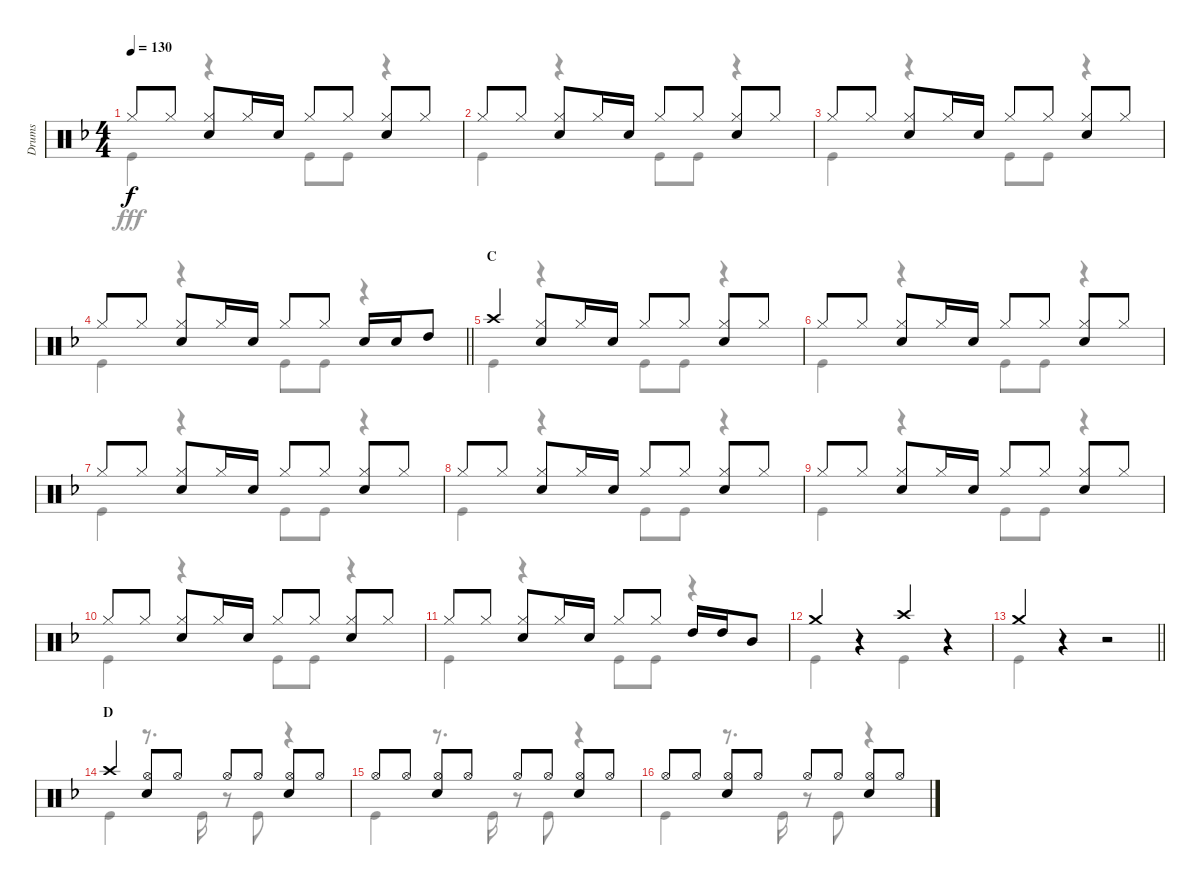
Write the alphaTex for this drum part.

\track ("Drums" "Drums") {instrument percussion}
\staff {score}
\articulation defaults
\voice
\ts (4 4)
\tempo 130
\clef neutral
\ks f "Hi-Hat (closed)".8{dy f} "Hi-Hat (closed)".8
("Hi-Hat (closed)" "Snare (hit) 2").8 "Hi-Hat (closed)".16 "Snare (hit) 2".16 "Hi-Hat (closed)".8 "Hi-Hat (closed)".8 ("Hi-Hat (closed)" "Snare (hit) 2").8 "Hi-Hat (closed)".8 |
"Hi-Hat (closed)".8 "Hi-Hat (closed)".8 ("Hi-Hat (closed)" "Snare (hit) 2").8 "Hi-Hat (closed)".16 "Snare (hit) 2".16 "Hi-Hat (closed)".8 "Hi-Hat (closed)".8 ("Hi-Hat (closed)" "Snare (hit) 2").8 "Hi-Hat (closed)".8 |
"Hi-Hat (closed)".8 "Hi-Hat (closed)".8 ("Hi-Hat (closed)" "Snare (hit) 2").8 "Hi-Hat (closed)".16 "Snare (hit) 2".16 "Hi-Hat (closed)".8 "Hi-Hat (closed)".8 ("Hi-Hat (closed)" "Snare (hit) 2").8 "Hi-Hat (closed)".8 |
\barLineRight lightlight "Hi-Hat (closed)".8 "Hi-Hat (closed)".8
("Hi-Hat (closed)" "Snare (hit) 2").8 "Hi-Hat (closed)".16 "Snare (hit) 2".16 "Hi-Hat (closed)".8 "Hi-Hat (closed)".8 "Snare (hit) 2".16 "Snare (hit) 2".16 "High Tom (hit)".8 |
\section ("" "C")
"Crash high (hit)".4 ("Hi-Hat (closed)" "Snare (hit) 2").8 "Hi-Hat (closed)".16 "Snare (hit) 2".16 "Hi-Hat (closed)".8 "Hi-Hat (closed)".8 ("Hi-Hat (closed)" "Snare (hit) 2").8 "Hi-Hat (closed)".8 |
"Hi-Hat (closed)".8 "Hi-Hat (closed)".8 ("Hi-Hat (closed)" "Snare (hit) 2").8 "Hi-Hat (closed)".16 "Snare (hit) 2".16 "Hi-Hat (closed)".8 "Hi-Hat (closed)".8 ("Hi-Hat (closed)" "Snare (hit) 2").8 "Hi-Hat (closed)".8 |
"Hi-Hat (closed)".8 "Hi-Hat (closed)".8 ("Hi-Hat (closed)" "Snare (hit) 2").8 "Hi-Hat (closed)".16 "Snare (hit) 2".16 "Hi-Hat (closed)".8 "Hi-Hat (closed)".8 ("Hi-Hat (closed)" "Snare (hit) 2").8 "Hi-Hat (closed)".8 |
"Hi-Hat (closed)".8 "Hi-Hat (closed)".8 ("Hi-Hat (closed)" "Snare (hit) 2").8 "Hi-Hat (closed)".16 "Snare (hit) 2".16 "Hi-Hat (closed)".8 "Hi-Hat (closed)".8 ("Hi-Hat (closed)" "Snare (hit) 2").8 "Hi-Hat (closed)".8 |
"Hi-Hat (closed)".8 "Hi-Hat (closed)".8 ("Hi-Hat (closed)" "Snare (hit) 2").8 "Hi-Hat (closed)".16 "Snare (hit) 2".16 "Hi-Hat (closed)".8 "Hi-Hat (closed)".8 ("Hi-Hat (closed)" "Snare (hit) 2").8 "Hi-Hat (closed)".8 |
"Hi-Hat (closed)".8 "Hi-Hat (closed)".8 ("Hi-Hat (closed)" "Snare (hit) 2").8 "Hi-Hat (closed)".16 "Snare (hit) 2".16 "Hi-Hat (closed)".8 "Hi-Hat (closed)".8 ("Hi-Hat (closed)" "Snare (hit) 2").8 "Hi-Hat (closed)".8 |
"Hi-Hat (closed)".8 "Hi-Hat (closed)".8 ("Hi-Hat (closed)" "Snare (hit) 2").8 "Hi-Hat (closed)".16 "Snare (hit) 2".16 "Hi-Hat (closed)".8 "Hi-Hat (closed)".8 "High Tom (hit)".16 "High Tom (hit)".16 "Mid Tom (hit)".8 |
"Crash medium (hit)".4 r.4 "Crash high (hit)".4 r.4 |
\barLineRight lightlight "Crash medium (hit)".4
r.4 r.2 |
\section ("" "D")
"Crash high (hit)".4 ("Hi-Hat (open)" "Snare (hit) 2").8 "Hi-Hat (open)".8 "Hi-Hat (open)".8 "Hi-Hat (open)".8 ("Hi-Hat (open)" "Snare (hit) 2").8 "Hi-Hat (open)".8 |
"Hi-Hat (open)".8 "Hi-Hat (open)".8 ("Hi-Hat (open)" "Snare (hit) 2").8 "Hi-Hat (open)".8 "Hi-Hat (open)".8 "Hi-Hat (open)".8 ("Hi-Hat (open)" "Snare (hit) 2").8 "Hi-Hat (open)".8 |
"Hi-Hat (open)".8 "Hi-Hat (open)".8 ("Hi-Hat (open)" "Snare (hit) 2").8 "Hi-Hat (open)".8 "Hi-Hat (open)".8 "Hi-Hat (open)".8 ("Hi-Hat (open)" "Snare (hit) 2").8 "Hi-Hat (open)".8
\voice
\clef neutral
\ottava regular
\simile none
\ks f "Kick (hit)".4{dy fff}
r.4 "Kick (hit)".8 "Kick (hit)".8 r.4 |
"Kick (hit)".4 r.4 "Kick (hit)".8 "Kick (hit)".8 r.4 |
"Kick (hit)".4 r.4 "Kick (hit)".8 "Kick (hit)".8 r.4 |
\barLineRight lightlight "Kick (hit)".4
r.4 "Kick (hit)".8 "Kick (hit)".8 r.4 |
"Kick (hit)".4 r.4 "Kick (hit)".8 "Kick (hit)".8 r.4 |
"Kick (hit)".4 r.4 "Kick (hit)".8 "Kick (hit)".8 r.4 |
"Kick (hit)".4 r.4 "Kick (hit)".8 "Kick (hit)".8 r.4 |
"Kick (hit)".4 r.4 "Kick (hit)".8 "Kick (hit)".8 r.4 |
"Kick (hit)".4 r.4 "Kick (hit)".8 "Kick (hit)".8 r.4 |
"Kick (hit)".4 r.4 "Kick (hit)".8 "Kick (hit)".8 r.4 |
"Kick (hit)".4 r.4 "Kick (hit)".8 "Kick (hit)".8 r.4 |
"Kick (hit)".4 r.4 "Kick (hit)".4 r.4 |
\barLineRight lightlight "Kick (hit)".4
r.4 r.2 |
"Kick (hit)".4 r.8{d} "Kick (hit)".16 r.8 "Kick (hit)".8 r.4 |
"Kick (hit)".4 r.8{d} "Kick (hit)".16 r.8 "Kick (hit)".8 r.4 |
"Kick (hit)".4 r.8{d} "Kick (hit)".16 r.8 "Kick (hit)".8 r.4
